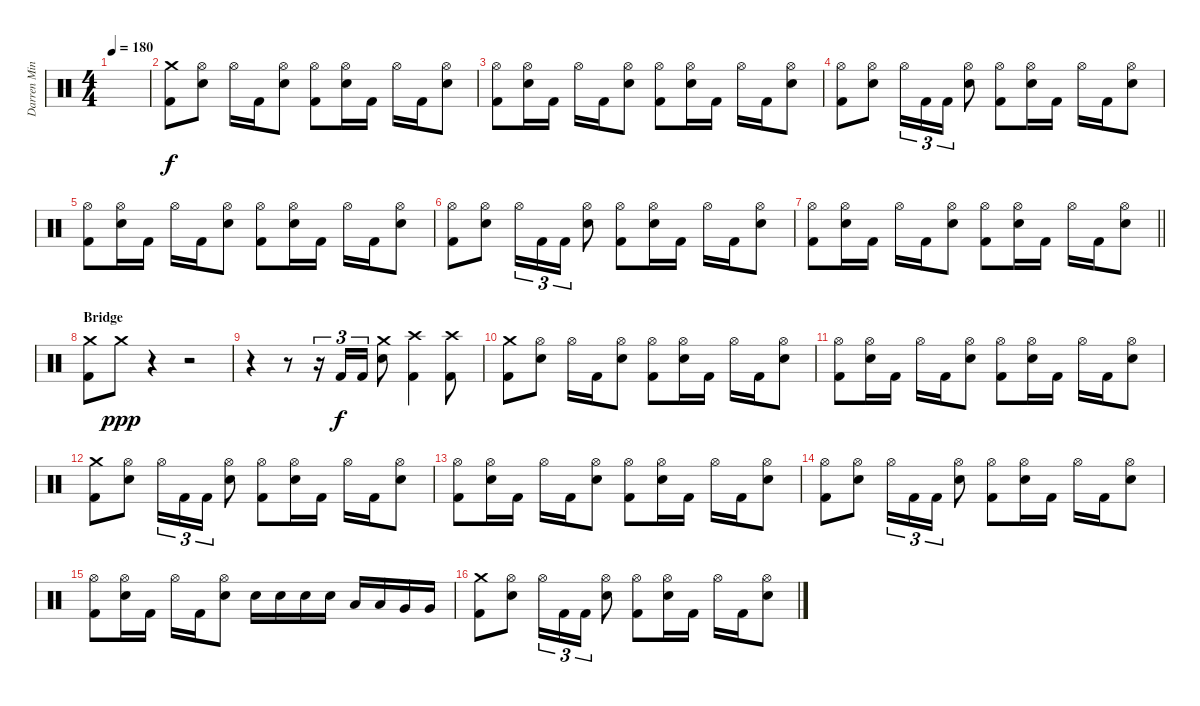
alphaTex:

\track ("Darren Minter" "Darren Min") {instrument percussion}
\staff {score}
\articulation defaults
\ts (4 4)
\tempo 180
\clef neutral
\ks c
|
("Crash medium (hit)" "Kick (hit) 2").8 ("Hi-Hat (open)" "Electric Snare (hit)").8 "Hi-Hat (open)".16 "Kick (hit) 2".16 ("Hi-Hat (open)" "Electric Snare (hit)").8 ("Hi-Hat (open)" "Kick (hit) 2").8 ("Hi-Hat (open)" "Electric Snare (hit)").16 "Kick (hit) 2".16 "Hi-Hat (open)".16 "Kick (hit) 2".16 ("Hi-Hat (open)" "Electric Snare (hit)").8 |
("Hi-Hat (open)" "Kick (hit) 2").8 ("Hi-Hat (open)" "Electric Snare (hit)").16 "Kick (hit) 2".16 "Hi-Hat (open)".16 "Kick (hit) 2".16 ("Hi-Hat (open)" "Electric Snare (hit)").8 ("Hi-Hat (open)" "Kick (hit) 2").8 ("Hi-Hat (open)" "Electric Snare (hit)").16 "Kick (hit) 2".16 "Hi-Hat (open)".16 "Kick (hit) 2".16 ("Hi-Hat (open)" "Electric Snare (hit)").8 |
("Hi-Hat (open)" "Kick (hit) 2").8 ("Hi-Hat (open)" "Electric Snare (hit)").8 "Hi-Hat (open)".16{tu (3 2)} "Kick (hit) 2".16{tu (3 2)} "Kick (hit) 2".16{tu (3 2)} ("Hi-Hat (open)" "Electric Snare (hit)").8 ("Hi-Hat (open)" "Kick (hit) 2").8 ("Hi-Hat (open)" "Electric Snare (hit)").16 "Kick (hit) 2".16 "Hi-Hat (open)".16 "Kick (hit) 2".16 ("Hi-Hat (open)" "Electric Snare (hit)").8 |
("Hi-Hat (open)" "Kick (hit) 2").8 ("Hi-Hat (open)" "Electric Snare (hit)").16 "Kick (hit) 2".16 "Hi-Hat (open)".16 "Kick (hit) 2".16 ("Hi-Hat (open)" "Electric Snare (hit)").8 ("Hi-Hat (open)" "Kick (hit) 2").8 ("Hi-Hat (open)" "Electric Snare (hit)").16 "Kick (hit) 2".16 "Hi-Hat (open)".16 "Kick (hit) 2".16 ("Hi-Hat (open)" "Electric Snare (hit)").8 |
("Hi-Hat (open)" "Kick (hit) 2").8 ("Hi-Hat (open)" "Electric Snare (hit)").8 "Hi-Hat (open)".16{tu (3 2)} "Kick (hit) 2".16{tu (3 2)} "Kick (hit) 2".16{tu (3 2)} ("Hi-Hat (open)" "Electric Snare (hit)").8 ("Hi-Hat (open)" "Kick (hit) 2").8 ("Hi-Hat (open)" "Electric Snare (hit)").16 "Kick (hit) 2".16 "Hi-Hat (open)".16 "Kick (hit) 2".16 ("Hi-Hat (open)" "Electric Snare (hit)").8 |
\barLineRight lightlight
("Hi-Hat (open)" "Kick (hit) 2").8 ("Hi-Hat (open)" "Electric Snare (hit)").16 "Kick (hit) 2".16 "Hi-Hat (open)".16 "Kick (hit) 2".16 ("Hi-Hat (open)" "Electric Snare (hit)").8 ("Hi-Hat (open)" "Kick (hit) 2").8 ("Hi-Hat (open)" "Electric Snare (hit)").16 "Kick (hit) 2".16 "Hi-Hat (open)".16 "Kick (hit) 2".16 ("Hi-Hat (open)" "Electric Snare (hit)").8 |
\section ("" "Bridge")
("Crash medium (hit)" "Kick (hit) 2").8 "Crash medium (hit)".8{dy ppp} r.4 r.2 |
r.4 r.8 r.16{tu (3 2)} "Kick (hit) 2".16{tu (3 2) dy f} "Kick (hit) 2".16{tu (3 2)} ("Crash medium (hit)" "Electric Snare (hit)").8 ("Crash high (hit)" "Kick (hit) 2").4 ("Crash high (hit)" "Kick (hit) 2").8 |
("Crash medium (hit)" "Kick (hit) 2").8 ("Hi-Hat (open)" "Electric Snare (hit)").8 "Hi-Hat (open)".16 "Kick (hit) 2".16 ("Hi-Hat (open)" "Electric Snare (hit)").8 ("Hi-Hat (open)" "Kick (hit) 2").8 ("Hi-Hat (open)" "Electric Snare (hit)").16 "Kick (hit) 2".16 "Hi-Hat (open)".16 "Kick (hit) 2".16 ("Hi-Hat (open)" "Electric Snare (hit)").8 |
("Hi-Hat (open)" "Kick (hit) 2").8 ("Hi-Hat (open)" "Electric Snare (hit)").16 "Kick (hit) 2".16 "Hi-Hat (open)".16 "Kick (hit) 2".16 ("Hi-Hat (open)" "Electric Snare (hit)").8 ("Hi-Hat (open)" "Kick (hit) 2").8 ("Hi-Hat (open)" "Electric Snare (hit)").16 "Kick (hit) 2".16 "Hi-Hat (open)".16 "Kick (hit) 2".16 ("Hi-Hat (open)" "Electric Snare (hit)").8 |
("Crash medium (hit)" "Kick (hit) 2").8 ("Hi-Hat (open)" "Electric Snare (hit)").8 "Hi-Hat (open)".16{tu (3 2)} "Kick (hit) 2".16{tu (3 2)} "Kick (hit) 2".16{tu (3 2)} ("Hi-Hat (open)" "Electric Snare (hit)").8 ("Hi-Hat (open)" "Kick (hit) 2").8 ("Hi-Hat (open)" "Electric Snare (hit)").16 "Kick (hit) 2".16 "Hi-Hat (open)".16 "Kick (hit) 2".16 ("Hi-Hat (open)" "Electric Snare (hit)").8 |
("Hi-Hat (open)" "Kick (hit) 2").8 ("Hi-Hat (open)" "Electric Snare (hit)").16 "Kick (hit) 2".16 "Hi-Hat (open)".16 "Kick (hit) 2".16 ("Hi-Hat (open)" "Electric Snare (hit)").8 ("Hi-Hat (open)" "Kick (hit) 2").8 ("Hi-Hat (open)" "Electric Snare (hit)").16 "Kick (hit) 2".16 "Hi-Hat (open)".16 "Kick (hit) 2".16 ("Hi-Hat (open)" "Electric Snare (hit)").8 |
("Hi-Hat (open)" "Kick (hit) 2").8 ("Hi-Hat (open)" "Electric Snare (hit)").8 "Hi-Hat (open)".16{tu (3 2)} "Kick (hit) 2".16{tu (3 2)} "Kick (hit) 2".16{tu (3 2)} ("Hi-Hat (open)" "Electric Snare (hit)").8 ("Hi-Hat (open)" "Kick (hit) 2").8 ("Hi-Hat (open)" "Electric Snare (hit)").16 "Kick (hit) 2".16 "Hi-Hat (open)".16 "Kick (hit) 2".16 ("Hi-Hat (open)" "Electric Snare (hit)").8 |
("Hi-Hat (open)" "Kick (hit) 2").8 ("Hi-Hat (open)" "Electric Snare (hit)").16 "Kick (hit) 2".16 "Hi-Hat (open)".16 "Kick (hit) 2".16 ("Hi-Hat (open)" "Electric Snare (hit)").8 "Electric Snare (hit)".16 "Electric Snare (hit)".16 "Electric Snare (hit)".16 "Electric Snare (hit)".16 "Low Tom (hit)".16 "Low Tom (hit)".16 "Very Low Tom (hit)".16 "Very Low Tom (hit)".16 |
("Crash medium (hit)" "Kick (hit) 2").8 ("Hi-Hat (open)" "Electric Snare (hit)").8 "Hi-Hat (open)".16{tu (3 2)} "Kick (hit) 2".16{tu (3 2)} "Kick (hit) 2".16{tu (3 2)} ("Hi-Hat (open)" "Electric Snare (hit)").8 ("Hi-Hat (open)" "Kick (hit) 2").8 ("Hi-Hat (open)" "Electric Snare (hit)").16 "Kick (hit) 2".16 "Hi-Hat (open)".16 "Kick (hit) 2".16 ("Hi-Hat (open)" "Electric Snare (hit)").8
